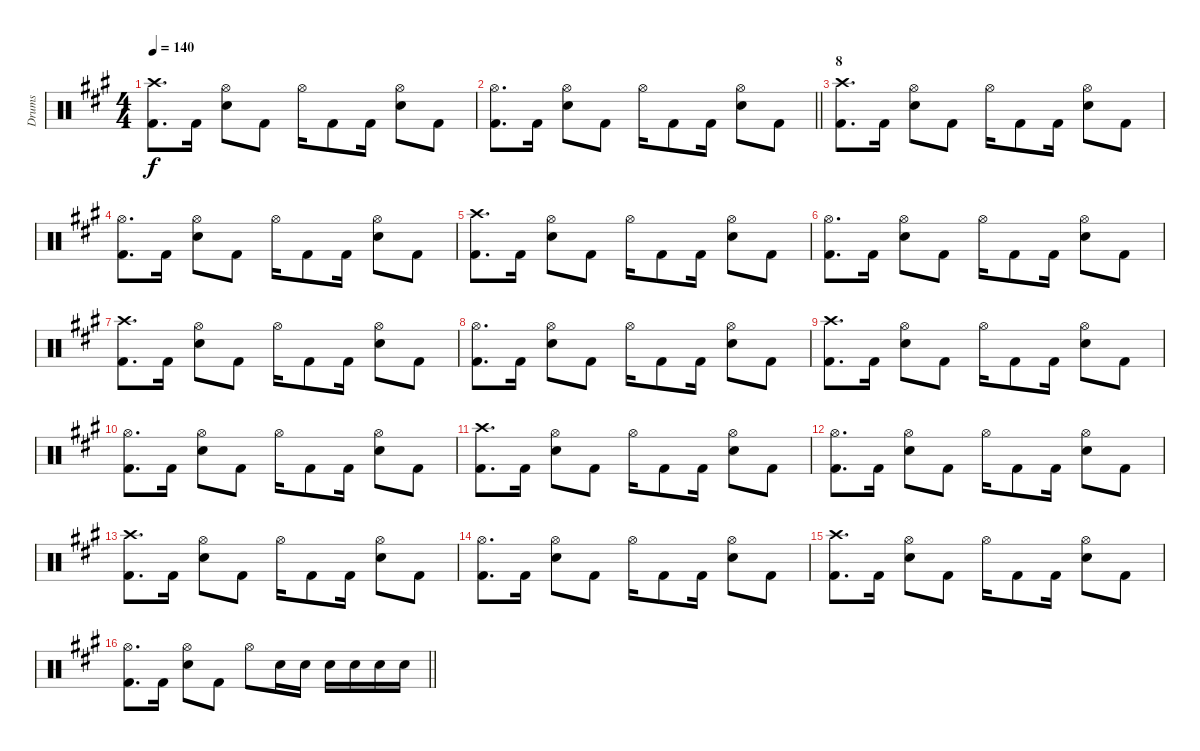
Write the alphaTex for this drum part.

\track ("Drums" "Drums") {instrument percussion}
\staff {score}
\articulation defaults
\ts (4 4)
\tempo 140
\clef neutral
\ks a
("Crash high (hit)" "Kick (hit) 2").8{d dy f} "Kick (hit) 2".16 ("Hi-Hat (open)" "Electric Snare (hit)").8 "Kick (hit) 2".8 "Hi-Hat (open)".16 "Kick (hit) 2".8 "Kick (hit) 2".16 ("Hi-Hat (open)" "Electric Snare (hit)").8 "Kick (hit) 2".8 |
\barLineRight lightlight
("Hi-Hat (open)" "Kick (hit) 2").8{d} "Kick (hit) 2".16 ("Hi-Hat (open)" "Electric Snare (hit)").8 "Kick (hit) 2".8 "Hi-Hat (open)".16 "Kick (hit) 2".8 "Kick (hit) 2".16 ("Hi-Hat (open)" "Electric Snare (hit)").8 "Kick (hit) 2".8 |
\section ("" "8")
("Crash high (hit)" "Kick (hit) 2").8{d} "Kick (hit) 2".16 ("Hi-Hat (open)" "Electric Snare (hit)").8 "Kick (hit) 2".8 "Hi-Hat (open)".16 "Kick (hit) 2".8 "Kick (hit) 2".16 ("Hi-Hat (open)" "Electric Snare (hit)").8 "Kick (hit) 2".8 |
("Hi-Hat (open)" "Kick (hit) 2").8{d} "Kick (hit) 2".16 ("Hi-Hat (open)" "Electric Snare (hit)").8 "Kick (hit) 2".8 "Hi-Hat (open)".16 "Kick (hit) 2".8 "Kick (hit) 2".16 ("Hi-Hat (open)" "Electric Snare (hit)").8 "Kick (hit) 2".8 |
("Crash high (hit)" "Kick (hit) 2").8{d} "Kick (hit) 2".16 ("Hi-Hat (open)" "Electric Snare (hit)").8 "Kick (hit) 2".8 "Hi-Hat (open)".16 "Kick (hit) 2".8 "Kick (hit) 2".16 ("Hi-Hat (open)" "Electric Snare (hit)").8 "Kick (hit) 2".8 |
("Hi-Hat (open)" "Kick (hit) 2").8{d} "Kick (hit) 2".16 ("Hi-Hat (open)" "Electric Snare (hit)").8 "Kick (hit) 2".8 "Hi-Hat (open)".16 "Kick (hit) 2".8 "Kick (hit) 2".16 ("Hi-Hat (open)" "Electric Snare (hit)").8 "Kick (hit) 2".8 |
("Crash high (hit)" "Kick (hit) 2").8{d} "Kick (hit) 2".16 ("Hi-Hat (open)" "Electric Snare (hit)").8 "Kick (hit) 2".8 "Hi-Hat (open)".16 "Kick (hit) 2".8 "Kick (hit) 2".16 ("Hi-Hat (open)" "Electric Snare (hit)").8 "Kick (hit) 2".8 |
("Hi-Hat (open)" "Kick (hit) 2").8{d} "Kick (hit) 2".16 ("Hi-Hat (open)" "Electric Snare (hit)").8 "Kick (hit) 2".8 "Hi-Hat (open)".16 "Kick (hit) 2".8 "Kick (hit) 2".16 ("Hi-Hat (open)" "Electric Snare (hit)").8 "Kick (hit) 2".8 |
("Crash high (hit)" "Kick (hit) 2").8{d} "Kick (hit) 2".16 ("Hi-Hat (open)" "Electric Snare (hit)").8 "Kick (hit) 2".8 "Hi-Hat (open)".16 "Kick (hit) 2".8 "Kick (hit) 2".16 ("Hi-Hat (open)" "Electric Snare (hit)").8 "Kick (hit) 2".8 |
("Hi-Hat (open)" "Kick (hit) 2").8{d} "Kick (hit) 2".16 ("Hi-Hat (open)" "Electric Snare (hit)").8 "Kick (hit) 2".8 "Hi-Hat (open)".16 "Kick (hit) 2".8 "Kick (hit) 2".16 ("Hi-Hat (open)" "Electric Snare (hit)").8 "Kick (hit) 2".8 |
("Crash high (hit)" "Kick (hit) 2").8{d} "Kick (hit) 2".16 ("Hi-Hat (open)" "Electric Snare (hit)").8 "Kick (hit) 2".8 "Hi-Hat (open)".16 "Kick (hit) 2".8 "Kick (hit) 2".16 ("Hi-Hat (open)" "Electric Snare (hit)").8 "Kick (hit) 2".8 |
("Hi-Hat (open)" "Kick (hit) 2").8{d} "Kick (hit) 2".16 ("Hi-Hat (open)" "Electric Snare (hit)").8 "Kick (hit) 2".8 "Hi-Hat (open)".16 "Kick (hit) 2".8 "Kick (hit) 2".16 ("Hi-Hat (open)" "Electric Snare (hit)").8 "Kick (hit) 2".8 |
("Crash high (hit)" "Kick (hit) 2").8{d} "Kick (hit) 2".16 ("Hi-Hat (open)" "Electric Snare (hit)").8 "Kick (hit) 2".8 "Hi-Hat (open)".16 "Kick (hit) 2".8 "Kick (hit) 2".16 ("Hi-Hat (open)" "Electric Snare (hit)").8 "Kick (hit) 2".8 |
("Hi-Hat (open)" "Kick (hit) 2").8{d} "Kick (hit) 2".16 ("Hi-Hat (open)" "Electric Snare (hit)").8 "Kick (hit) 2".8 "Hi-Hat (open)".16 "Kick (hit) 2".8 "Kick (hit) 2".16 ("Hi-Hat (open)" "Electric Snare (hit)").8 "Kick (hit) 2".8 |
("Crash high (hit)" "Kick (hit) 2").8{d} "Kick (hit) 2".16 ("Hi-Hat (open)" "Electric Snare (hit)").8 "Kick (hit) 2".8 "Hi-Hat (open)".16 "Kick (hit) 2".8 "Kick (hit) 2".16 ("Hi-Hat (open)" "Electric Snare (hit)").8 "Kick (hit) 2".8 |
\barLineRight lightlight
("Hi-Hat (open)" "Kick (hit) 2").8{d} "Kick (hit) 2".16 ("Hi-Hat (open)" "Electric Snare (hit)").8 "Kick (hit) 2".8 "Hi-Hat (open)".8 "Electric Snare (hit)".16 "Electric Snare (hit)".16 "Electric Snare (hit)".16 "Electric Snare (hit)".16 "Electric Snare (hit)".16 "Electric Snare (hit)".16
